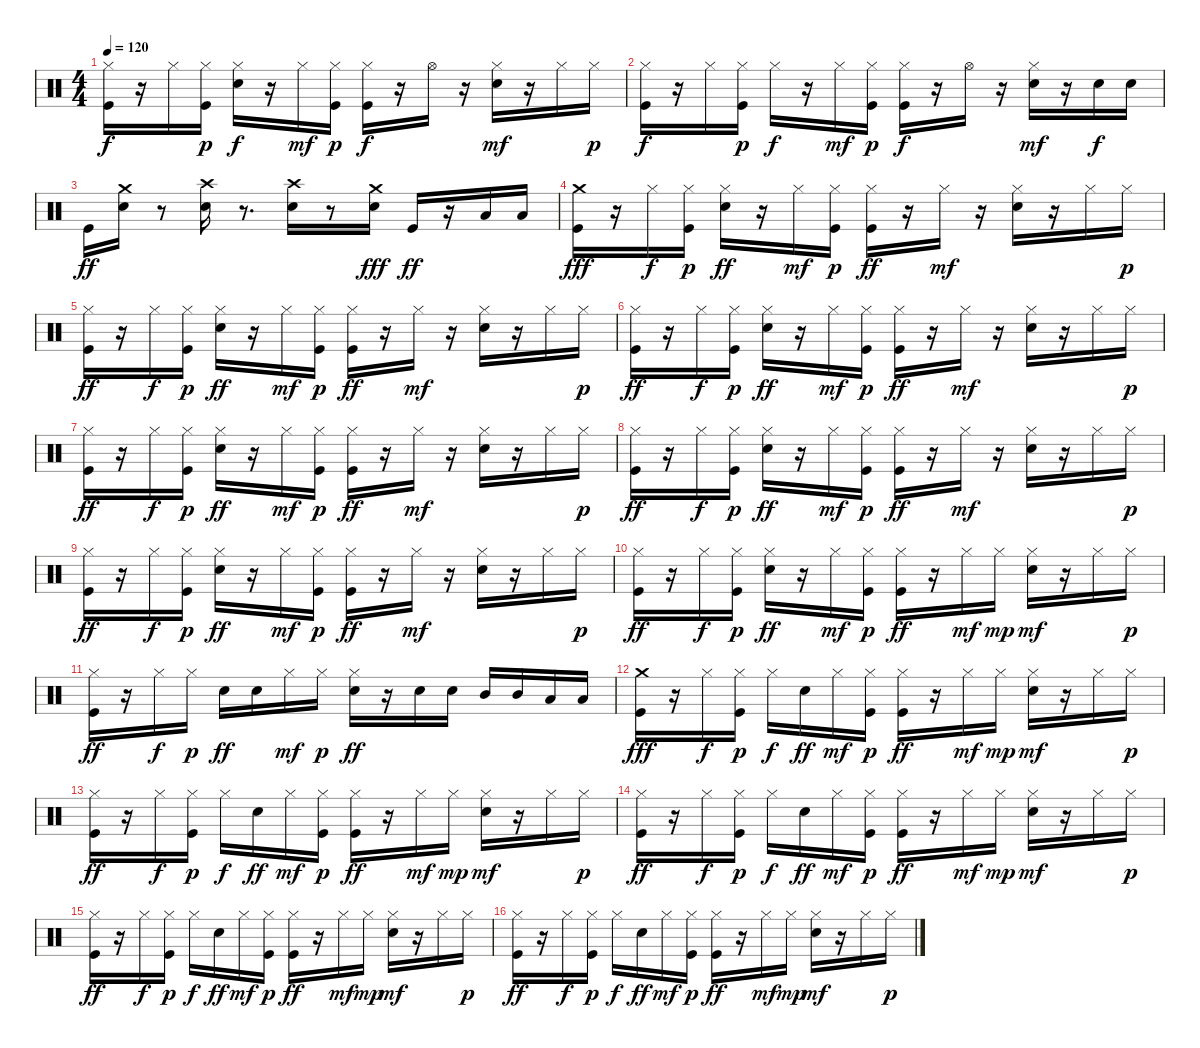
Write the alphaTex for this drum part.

\track "" {instrument percussion}
\staff {score}
\articulation defaults
\ts (4 4)
\tempo 120
\clef neutral
\ks c
("Kick (hit)" "Hi-Hat (closed)").16{dy f} r.16 "Hi-Hat (closed)".16 ("Kick (hit)" "Hi-Hat (closed)").16{dy p} ("Electric Snare (hit)" "Hi-Hat (closed)").16{dy f} r.16 "Hi-Hat (closed)".16{dy mf} ("Kick (hit)" "Hi-Hat (closed)").16{dy p} ("Kick (hit)" "Hi-Hat (closed)").16{dy f} r.16 "Hi-Hat (open)".16 r.16 ("Electric Snare (hit)" "Hi-Hat (closed)").16{dy mf} r.16 "Hi-Hat (closed)".16 "Hi-Hat (closed)".16{dy p} |
("Kick (hit)" "Hi-Hat (closed)").16{dy f} r.16 "Hi-Hat (closed)".16 ("Kick (hit)" "Hi-Hat (closed)").16{dy p} "Hi-Hat (closed)".16{dy f} r.16 "Hi-Hat (closed)".16{dy mf} ("Kick (hit)" "Hi-Hat (closed)").16{dy p} ("Kick (hit)" "Hi-Hat (closed)").16{dy f} r.16 "Hi-Hat (open)".16 r.16 ("Electric Snare (hit)" "Hi-Hat (closed)").16{dy mf} r.16 "Electric Snare (hit)".16{dy f} "Electric Snare (hit)".16 |
"Kick (hit)".16{dy ff} ("Electric Snare (hit)" "Crash medium (hit)").16 r.8 ("Electric Snare (hit)" "Crash high (hit)").16 r.8{d} ("Electric Snare (hit)" "Crash high (hit)").16 r.8 ("Electric Snare (hit)" "Crash medium (hit)").16{dy fff} "Kick (hit)".16{dy ff} r.16 "Low Tom (hit)".16 "Low Tom (hit)".16 |
("Kick (hit)" "Crash medium (hit)").16{dy fff} r.16 "Hi-Hat (closed)".16{dy f} ("Kick (hit)" "Hi-Hat (closed)").16{dy p} ("Electric Snare (hit)" "Hi-Hat (closed)").16{dy ff} r.16 "Hi-Hat (closed)".16{dy mf} ("Kick (hit)" "Hi-Hat (closed)").16{dy p} ("Kick (hit)" "Hi-Hat (closed)").16{dy ff} r.16 "Hi-Hat (closed)".16{dy mf} r.16 ("Electric Snare (hit)" "Hi-Hat (closed)").16 r.16 "Hi-Hat (closed)".16 "Hi-Hat (closed)".16{dy p} |
("Kick (hit)" "Hi-Hat (closed)").16{dy ff} r.16 "Hi-Hat (closed)".16{dy f} ("Kick (hit)" "Hi-Hat (closed)").16{dy p} ("Electric Snare (hit)" "Hi-Hat (closed)").16{dy ff} r.16 "Hi-Hat (closed)".16{dy mf} ("Kick (hit)" "Hi-Hat (closed)").16{dy p} ("Kick (hit)" "Hi-Hat (closed)").16{dy ff} r.16 "Hi-Hat (closed)".16{dy mf} r.16 ("Electric Snare (hit)" "Hi-Hat (closed)").16 r.16 "Hi-Hat (closed)".16 "Hi-Hat (closed)".16{dy p} |
("Kick (hit)" "Hi-Hat (closed)").16{dy ff} r.16 "Hi-Hat (closed)".16{dy f} ("Kick (hit)" "Hi-Hat (closed)").16{dy p} ("Electric Snare (hit)" "Hi-Hat (closed)").16{dy ff} r.16 "Hi-Hat (closed)".16{dy mf} ("Kick (hit)" "Hi-Hat (closed)").16{dy p} ("Kick (hit)" "Hi-Hat (closed)").16{dy ff} r.16 "Hi-Hat (closed)".16{dy mf} r.16 ("Electric Snare (hit)" "Hi-Hat (closed)").16 r.16 "Hi-Hat (closed)".16 "Hi-Hat (closed)".16{dy p} |
("Kick (hit)" "Hi-Hat (closed)").16{dy ff} r.16 "Hi-Hat (closed)".16{dy f} ("Kick (hit)" "Hi-Hat (closed)").16{dy p} ("Electric Snare (hit)" "Hi-Hat (closed)").16{dy ff} r.16 "Hi-Hat (closed)".16{dy mf} ("Kick (hit)" "Hi-Hat (closed)").16{dy p} ("Kick (hit)" "Hi-Hat (closed)").16{dy ff} r.16 "Hi-Hat (closed)".16{dy mf} r.16 ("Electric Snare (hit)" "Hi-Hat (closed)").16 r.16 "Hi-Hat (closed)".16 "Hi-Hat (closed)".16{dy p} |
("Kick (hit)" "Hi-Hat (closed)").16{dy ff} r.16 "Hi-Hat (closed)".16{dy f} ("Kick (hit)" "Hi-Hat (closed)").16{dy p} ("Electric Snare (hit)" "Hi-Hat (closed)").16{dy ff} r.16 "Hi-Hat (closed)".16{dy mf} ("Kick (hit)" "Hi-Hat (closed)").16{dy p} ("Kick (hit)" "Hi-Hat (closed)").16{dy ff} r.16 "Hi-Hat (closed)".16{dy mf} r.16 ("Electric Snare (hit)" "Hi-Hat (closed)").16 r.16 "Hi-Hat (closed)".16 "Hi-Hat (closed)".16{dy p} |
("Kick (hit)" "Hi-Hat (closed)").16{dy ff} r.16 "Hi-Hat (closed)".16{dy f} ("Kick (hit)" "Hi-Hat (closed)").16{dy p} ("Electric Snare (hit)" "Hi-Hat (closed)").16{dy ff} r.16 "Hi-Hat (closed)".16{dy mf} ("Kick (hit)" "Hi-Hat (closed)").16{dy p} ("Kick (hit)" "Hi-Hat (closed)").16{dy ff} r.16 "Hi-Hat (closed)".16{dy mf} r.16 ("Electric Snare (hit)" "Hi-Hat (closed)").16 r.16 "Hi-Hat (closed)".16 "Hi-Hat (closed)".16{dy p} |
("Kick (hit)" "Hi-Hat (closed)").16{dy ff} r.16 "Hi-Hat (closed)".16{dy f} ("Kick (hit)" "Hi-Hat (closed)").16{dy p} ("Electric Snare (hit)" "Hi-Hat (closed)").16{dy ff} r.16 "Hi-Hat (closed)".16{dy mf} ("Kick (hit)" "Hi-Hat (closed)").16{dy p} ("Kick (hit)" "Hi-Hat (closed)").16{dy ff} r.16 "Hi-Hat (closed)".16{dy mf} "Hi-Hat (closed)".16{dy mp} ("Electric Snare (hit)" "Hi-Hat (closed)").16{dy mf} r.16 "Hi-Hat (closed)".16 "Hi-Hat (closed)".16{dy p} |
("Kick (hit)" "Hi-Hat (closed)").16{dy ff} r.16 "Hi-Hat (closed)".16{dy f} "Hi-Hat (closed)".16{dy p} "Electric Snare (hit)".16{dy ff} "Electric Snare (hit)".16 "Hi-Hat (closed)".16{dy mf} "Hi-Hat (closed)".16{dy p} ("Electric Snare (hit)" "Hi-Hat (closed)").16{dy ff} r.16 "Electric Snare (hit)".16 "Electric Snare (hit)".16 "Mid Tom (hit)".16 "Mid Tom (hit)".16 "Low Tom (hit)".16 "Low Tom (hit)".16 |
("Kick (hit)" "Crash medium (hit)").16{dy fff} r.16 "Hi-Hat (closed)".16{dy f} ("Kick (hit)" "Hi-Hat (closed)").16{dy p} "Hi-Hat (closed)".16{dy f} "Electric Snare (hit)".16{dy ff} "Hi-Hat (closed)".16{dy mf} ("Kick (hit)" "Hi-Hat (closed)").16{dy p} ("Kick (hit)" "Hi-Hat (closed)").16{dy ff} r.16 "Hi-Hat (closed)".16{dy mf} "Hi-Hat (closed)".16{dy mp} ("Electric Snare (hit)" "Hi-Hat (closed)").16{dy mf} r.16 "Hi-Hat (closed)".16 "Hi-Hat (closed)".16{dy p} |
("Kick (hit)" "Hi-Hat (closed)").16{dy ff} r.16 "Hi-Hat (closed)".16{dy f} ("Kick (hit)" "Hi-Hat (closed)").16{dy p} "Hi-Hat (closed)".16{dy f} "Electric Snare (hit)".16{dy ff} "Hi-Hat (closed)".16{dy mf} ("Kick (hit)" "Hi-Hat (closed)").16{dy p} ("Kick (hit)" "Hi-Hat (closed)").16{dy ff} r.16 "Hi-Hat (closed)".16{dy mf} "Hi-Hat (closed)".16{dy mp} ("Electric Snare (hit)" "Hi-Hat (closed)").16{dy mf} r.16 "Hi-Hat (closed)".16 "Hi-Hat (closed)".16{dy p} |
("Kick (hit)" "Hi-Hat (closed)").16{dy ff} r.16 "Hi-Hat (closed)".16{dy f} ("Kick (hit)" "Hi-Hat (closed)").16{dy p} "Hi-Hat (closed)".16{dy f} "Electric Snare (hit)".16{dy ff} "Hi-Hat (closed)".16{dy mf} ("Kick (hit)" "Hi-Hat (closed)").16{dy p} ("Kick (hit)" "Hi-Hat (closed)").16{dy ff} r.16 "Hi-Hat (closed)".16{dy mf} "Hi-Hat (closed)".16{dy mp} ("Electric Snare (hit)" "Hi-Hat (closed)").16{dy mf} r.16 "Hi-Hat (closed)".16 "Hi-Hat (closed)".16{dy p} |
("Kick (hit)" "Hi-Hat (closed)").16{dy ff} r.16 "Hi-Hat (closed)".16{dy f} ("Kick (hit)" "Hi-Hat (closed)").16{dy p} "Hi-Hat (closed)".16{dy f} "Electric Snare (hit)".16{dy ff} "Hi-Hat (closed)".16{dy mf} ("Kick (hit)" "Hi-Hat (closed)").16{dy p} ("Kick (hit)" "Hi-Hat (closed)").16{dy ff} r.16 "Hi-Hat (closed)".16{dy mf} "Hi-Hat (closed)".16{dy mp} ("Electric Snare (hit)" "Hi-Hat (closed)").16{dy mf} r.16 "Hi-Hat (closed)".16 "Hi-Hat (closed)".16{dy p} |
("Kick (hit)" "Hi-Hat (closed)").16{dy ff} r.16 "Hi-Hat (closed)".16{dy f} ("Kick (hit)" "Hi-Hat (closed)").16{dy p} "Hi-Hat (closed)".16{dy f} "Electric Snare (hit)".16{dy ff} "Hi-Hat (closed)".16{dy mf} ("Kick (hit)" "Hi-Hat (closed)").16{dy p} ("Kick (hit)" "Hi-Hat (closed)").16{dy ff} r.16 "Hi-Hat (closed)".16{dy mf} "Hi-Hat (closed)".16{dy mp} ("Electric Snare (hit)" "Hi-Hat (closed)").16{dy mf} r.16 "Hi-Hat (closed)".16 "Hi-Hat (closed)".16{dy p}
